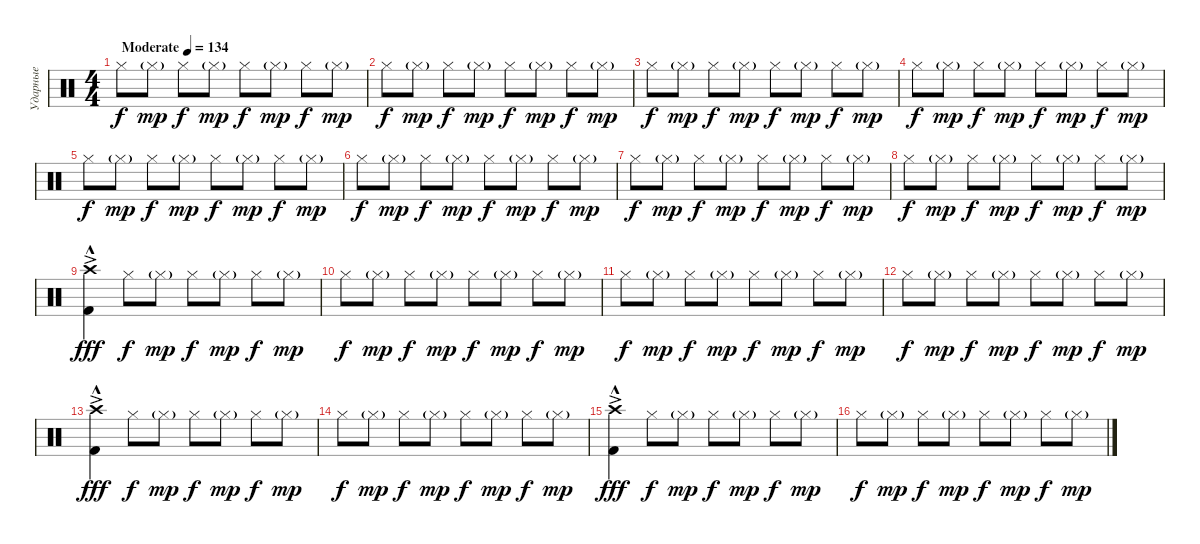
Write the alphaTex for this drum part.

\track ("Ударные" "Ударные") {instrument percussion}
\staff {score}
\articulation defaults
\ts (4 4)
\tempo (134 "Moderate")
\clef neutral
\ks c "Hi-Hat (closed)".8{dy f} "Hi-Hat (closed)"{g}.8{dy mp} "Hi-Hat (closed)".8{dy f} "Hi-Hat (closed)"{g}.8{dy mp} "Hi-Hat (closed)".8{dy f} "Hi-Hat (closed)"{g}.8{dy mp} "Hi-Hat (closed)".8{dy f} "Hi-Hat (closed)"{g}.8{dy mp}
|
"Hi-Hat (closed)".8{dy f} "Hi-Hat (closed)"{g}.8{dy mp} "Hi-Hat (closed)".8{dy f} "Hi-Hat (closed)"{g}.8{dy mp} "Hi-Hat (closed)".8{dy f} "Hi-Hat (closed)"{g}.8{dy mp} "Hi-Hat (closed)".8{dy f} "Hi-Hat (closed)"{g}.8{dy mp} |
"Hi-Hat (closed)".8{dy f} "Hi-Hat (closed)"{g}.8{dy mp} "Hi-Hat (closed)".8{dy f} "Hi-Hat (closed)"{g}.8{dy mp} "Hi-Hat (closed)".8{dy f} "Hi-Hat (closed)"{g}.8{dy mp} "Hi-Hat (closed)".8{dy f} "Hi-Hat (closed)"{g}.8{dy mp} |
"Hi-Hat (closed)".8{dy f} "Hi-Hat (closed)"{g}.8{dy mp} "Hi-Hat (closed)".8{dy f} "Hi-Hat (closed)"{g}.8{dy mp} "Hi-Hat (closed)".8{dy f} "Hi-Hat (closed)"{g}.8{dy mp} "Hi-Hat (closed)".8{dy f} "Hi-Hat (closed)"{g}.8{dy mp} |
"Hi-Hat (closed)".8{dy f} "Hi-Hat (closed)"{g}.8{dy mp} "Hi-Hat (closed)".8{dy f} "Hi-Hat (closed)"{g}.8{dy mp} "Hi-Hat (closed)".8{dy f} "Hi-Hat (closed)"{g}.8{dy mp} "Hi-Hat (closed)".8{dy f} "Hi-Hat (closed)"{g}.8{dy mp} |
"Hi-Hat (closed)".8{dy f} "Hi-Hat (closed)"{g}.8{dy mp} "Hi-Hat (closed)".8{dy f} "Hi-Hat (closed)"{g}.8{dy mp} "Hi-Hat (closed)".8{dy f} "Hi-Hat (closed)"{g}.8{dy mp} "Hi-Hat (closed)".8{dy f} "Hi-Hat (closed)"{g}.8{dy mp} |
"Hi-Hat (closed)".8{dy f} "Hi-Hat (closed)"{g}.8{dy mp} "Hi-Hat (closed)".8{dy f} "Hi-Hat (closed)"{g}.8{dy mp} "Hi-Hat (closed)".8{dy f} "Hi-Hat (closed)"{g}.8{dy mp} "Hi-Hat (closed)".8{dy f} "Hi-Hat (closed)"{g}.8{dy mp} |
"Hi-Hat (closed)".8{dy f} "Hi-Hat (closed)"{g}.8{dy mp} "Hi-Hat (closed)".8{dy f} "Hi-Hat (closed)"{g}.8{dy mp} "Hi-Hat (closed)".8{dy f} "Hi-Hat (closed)"{g}.8{dy mp} "Hi-Hat (closed)".8{dy f} "Hi-Hat (closed)"{g}.8{dy mp} |
("Crash high (hit)"{ac} "Kick (hit) 2"{hac}).4{dy fff} "Hi-Hat (closed)".8{dy f} "Hi-Hat (closed)"{g}.8{dy mp} "Hi-Hat (closed)".8{dy f} "Hi-Hat (closed)"{g}.8{dy mp} "Hi-Hat (closed)".8{dy f} "Hi-Hat (closed)"{g}.8{dy mp} |
"Hi-Hat (closed)".8{dy f} "Hi-Hat (closed)"{g}.8{dy mp} "Hi-Hat (closed)".8{dy f} "Hi-Hat (closed)"{g}.8{dy mp} "Hi-Hat (closed)".8{dy f} "Hi-Hat (closed)"{g}.8{dy mp} "Hi-Hat (closed)".8{dy f} "Hi-Hat (closed)"{g}.8{dy mp} |
"Hi-Hat (closed)".8{dy f} "Hi-Hat (closed)"{g}.8{dy mp} "Hi-Hat (closed)".8{dy f} "Hi-Hat (closed)"{g}.8{dy mp} "Hi-Hat (closed)".8{dy f} "Hi-Hat (closed)"{g}.8{dy mp} "Hi-Hat (closed)".8{dy f} "Hi-Hat (closed)"{g}.8{dy mp} |
"Hi-Hat (closed)".8{dy f} "Hi-Hat (closed)"{g}.8{dy mp} "Hi-Hat (closed)".8{dy f} "Hi-Hat (closed)"{g}.8{dy mp} "Hi-Hat (closed)".8{dy f} "Hi-Hat (closed)"{g}.8{dy mp} "Hi-Hat (closed)".8{dy f} "Hi-Hat (closed)"{g}.8{dy mp} |
("Crash high (hit)"{ac} "Kick (hit) 2"{hac}).4{dy fff} "Hi-Hat (closed)".8{dy f} "Hi-Hat (closed)"{g}.8{dy mp} "Hi-Hat (closed)".8{dy f} "Hi-Hat (closed)"{g}.8{dy mp} "Hi-Hat (closed)".8{dy f} "Hi-Hat (closed)"{g}.8{dy mp} |
"Hi-Hat (closed)".8{dy f} "Hi-Hat (closed)"{g}.8{dy mp} "Hi-Hat (closed)".8{dy f} "Hi-Hat (closed)"{g}.8{dy mp} "Hi-Hat (closed)".8{dy f} "Hi-Hat (closed)"{g}.8{dy mp} "Hi-Hat (closed)".8{dy f} "Hi-Hat (closed)"{g}.8{dy mp} |
("Crash high (hit)"{ac} "Kick (hit) 2"{hac}).4{dy fff} "Hi-Hat (closed)".8{dy f} "Hi-Hat (closed)"{g}.8{dy mp} "Hi-Hat (closed)".8{dy f} "Hi-Hat (closed)"{g}.8{dy mp} "Hi-Hat (closed)".8{dy f} "Hi-Hat (closed)"{g}.8{dy mp} |
"Hi-Hat (closed)".8{dy f} "Hi-Hat (closed)"{g}.8{dy mp} "Hi-Hat (closed)".8{dy f} "Hi-Hat (closed)"{g}.8{dy mp} "Hi-Hat (closed)".8{dy f} "Hi-Hat (closed)"{g}.8{dy mp} "Hi-Hat (closed)".8{dy f} "Hi-Hat (closed)"{g}.8{dy mp}
